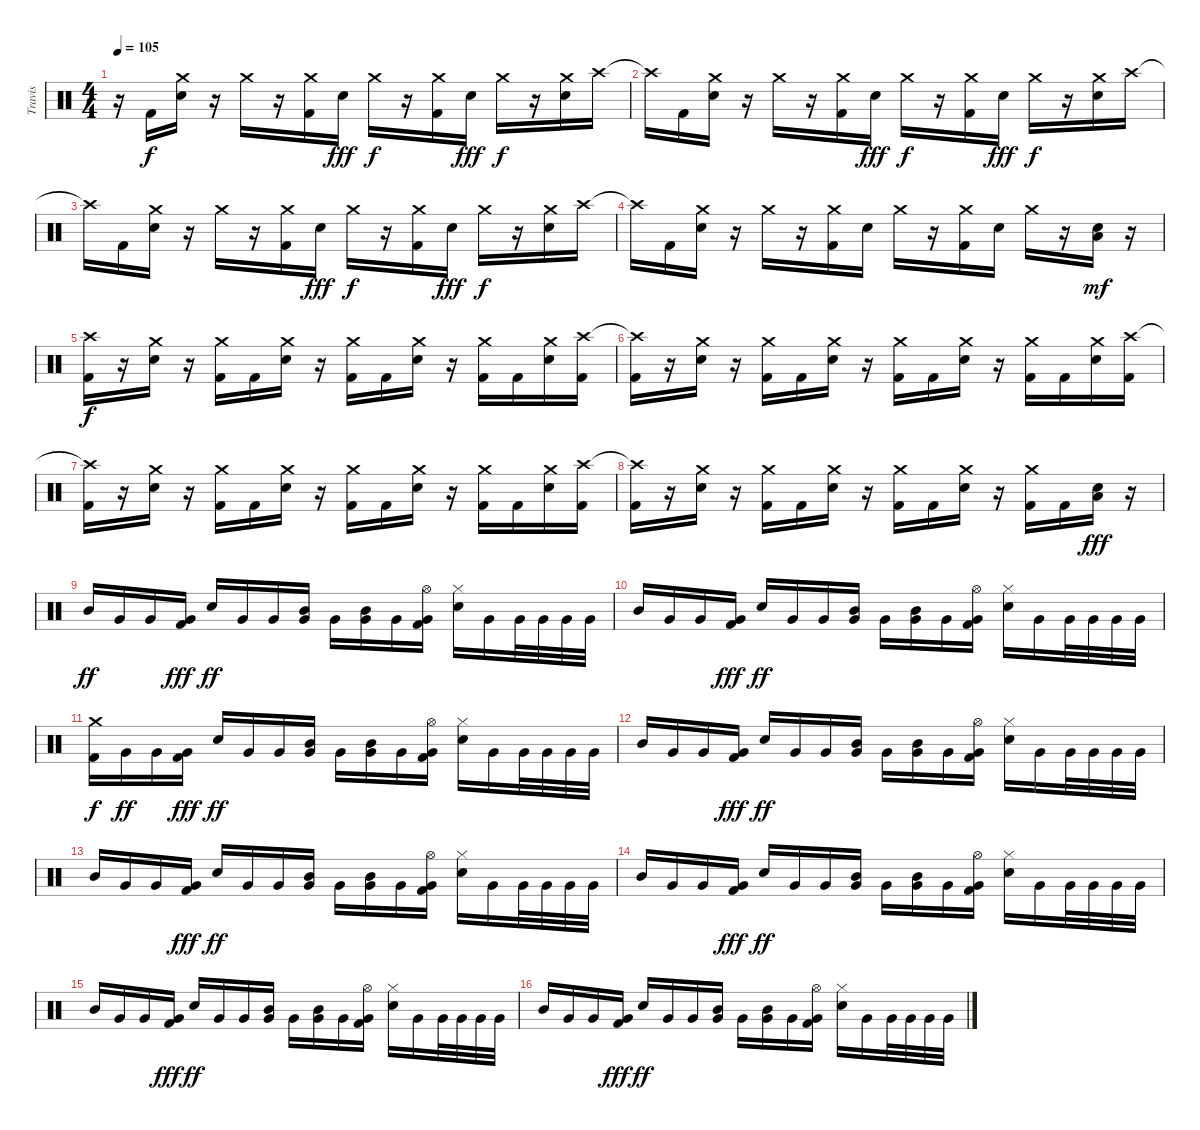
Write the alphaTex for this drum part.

\track ("Travis" "Travis") {instrument percussion}
\staff {score}
\articulation defaults
\ts (4 4)
\tempo 105
\clef neutral
\ks c
r.16{dy f} "Kick (hit) 2".16 ("Crash medium (hit)" "Electric Snare (hit)").16 r.16 "Crash medium (hit)".16 r.16 ("Crash medium (hit)" "Kick (hit) 2").16 "Electric Snare (hit)".16{dy fff} "Crash medium (hit)".16{dy f} r.16 ("Crash medium (hit)" "Kick (hit) 2").16 "Electric Snare (hit)".16{dy fff} "Crash medium (hit)".16{dy f} r.16 ("Crash medium (hit)" "Electric Snare (hit)").16 "Crash high (hit)".16 |
"Crash high (hit)"{t}.16 "Kick (hit) 2".16 ("Crash medium (hit)" "Electric Snare (hit)").16 r.16 "Crash medium (hit)".16 r.16 ("Crash medium (hit)" "Kick (hit) 2").16 "Electric Snare (hit)".16{dy fff} "Crash medium (hit)".16{dy f} r.16 ("Crash medium (hit)" "Kick (hit) 2").16 "Electric Snare (hit)".16{dy fff} "Crash medium (hit)".16{dy f} r.16 ("Crash medium (hit)" "Electric Snare (hit)").16 "Crash high (hit)".16 |
"Crash high (hit)"{t}.16 "Kick (hit) 2".16 ("Crash medium (hit)" "Electric Snare (hit)").16 r.16 "Crash medium (hit)".16 r.16 ("Crash medium (hit)" "Kick (hit) 2").16 "Electric Snare (hit)".16{dy fff} "Crash medium (hit)".16{dy f} r.16 ("Crash medium (hit)" "Kick (hit) 2").16 "Electric Snare (hit)".16{dy fff} "Crash medium (hit)".16{dy f} r.16 ("Crash medium (hit)" "Electric Snare (hit)").16 "Crash high (hit)".16 |
"Crash high (hit)"{t}.16 "Kick (hit) 2".16 ("Crash medium (hit)" "Electric Snare (hit)").16 r.16 "Crash medium (hit)".16 r.16 ("Crash medium (hit)" "Kick (hit) 2").16 "Electric Snare (hit)".16 "Crash medium (hit)".16 r.16 ("Crash medium (hit)" "Kick (hit) 2").16 "Electric Snare (hit)".16 "Crash medium (hit)".16 r.16 ("Low Tom (hit)" "Electric Snare (hit)").16{dy mf} r.16 |
("Crash high (hit)" "Kick (hit) 2").16{dy f} r.16 ("Crash medium (hit)" "Electric Snare (hit)").16 r.16 ("Crash medium (hit)" "Kick (hit) 2").16 "Kick (hit) 2".16 ("Crash medium (hit)" "Electric Snare (hit)").16 r.16 ("Crash medium (hit)" "Kick (hit) 2").16 "Kick (hit) 2".16 ("Crash medium (hit)" "Electric Snare (hit)").16 r.16 ("Crash medium (hit)" "Kick (hit) 2").16 "Kick (hit) 2".16 ("Crash medium (hit)" "Electric Snare (hit)").16 ("Crash high (hit)" "Kick (hit) 2").16 |
("Crash high (hit)"{t} "Kick (hit) 2").16 r.16 ("Crash medium (hit)" "Electric Snare (hit)").16 r.16 ("Crash medium (hit)" "Kick (hit) 2").16 "Kick (hit) 2".16 ("Crash medium (hit)" "Electric Snare (hit)").16 r.16 ("Crash medium (hit)" "Kick (hit) 2").16 "Kick (hit) 2".16 ("Crash medium (hit)" "Electric Snare (hit)").16 r.16 ("Crash medium (hit)" "Kick (hit) 2").16 "Kick (hit) 2".16 ("Crash medium (hit)" "Electric Snare (hit)").16 ("Crash high (hit)" "Kick (hit) 2").16 |
("Crash high (hit)"{t} "Kick (hit) 2").16 r.16 ("Crash medium (hit)" "Electric Snare (hit)").16 r.16 ("Crash medium (hit)" "Kick (hit) 2").16 "Kick (hit) 2".16 ("Crash medium (hit)" "Electric Snare (hit)").16 r.16 ("Crash medium (hit)" "Kick (hit) 2").16 "Kick (hit) 2".16 ("Crash medium (hit)" "Electric Snare (hit)").16 r.16 ("Crash medium (hit)" "Kick (hit) 2").16 "Kick (hit) 2".16 ("Crash medium (hit)" "Electric Snare (hit)").16 ("Crash high (hit)" "Kick (hit) 2").16 |
("Crash high (hit)"{t} "Kick (hit) 2").16 r.16 ("Crash medium (hit)" "Electric Snare (hit)").16 r.16 ("Crash medium (hit)" "Kick (hit) 2").16 "Kick (hit) 2".16 ("Crash medium (hit)" "Electric Snare (hit)").16 r.16 ("Crash medium (hit)" "Kick (hit) 2").16 "Kick (hit) 2".16 ("Crash medium (hit)" "Electric Snare (hit)").16 r.16 ("Crash medium (hit)" "Kick (hit) 2").16 "Kick (hit) 2".16 ("Low Tom (hit)" "Electric Snare (hit)").16{dy fff} r.16 |
"Mid Tom (hit)".16{dy ff} "Very Low Tom (hit)".16 "Very Low Tom (hit)".16 ("Very Low Tom (hit)" "Kick (hit) 2").16{dy fff} "Electric Snare (hit)".16{dy ff} "Very Low Tom (hit)".16 "Very Low Tom (hit)".16 ("Mid Tom (hit)" "Very Low Tom (hit)").16 "Very Low Tom (hit)".16 ("Mid Tom (hit)" "Very Low Tom (hit)").16 "Very Low Tom (hit)".16 ("Hi-Hat (open)" "Very Low Tom (hit)" "Kick (hit) 2").16 ("Hi-Hat (closed)" "Electric Snare (hit)").16 "Very Low Tom (hit)".16 "Very Low Tom (hit)".32 "Very Low Tom (hit)".32 "Very Low Tom (hit)".32 "Very Low Tom (hit)".32 |
"Mid Tom (hit)".16 "Very Low Tom (hit)".16 "Very Low Tom (hit)".16 ("Very Low Tom (hit)" "Kick (hit) 2").16{dy fff} "Electric Snare (hit)".16{dy ff} "Very Low Tom (hit)".16 "Very Low Tom (hit)".16 ("Mid Tom (hit)" "Very Low Tom (hit)").16 "Very Low Tom (hit)".16 ("Mid Tom (hit)" "Very Low Tom (hit)").16 "Very Low Tom (hit)".16 ("Hi-Hat (open)" "Very Low Tom (hit)" "Kick (hit) 2").16 ("Hi-Hat (closed)" "Electric Snare (hit)").16 "Very Low Tom (hit)".16 "Very Low Tom (hit)".32 "Very Low Tom (hit)".32 "Very Low Tom (hit)".32 "Very Low Tom (hit)".32 |
("Crash medium (hit)" "Kick (hit) 2").16{dy f} "Very Low Tom (hit)".16{dy ff} "Very Low Tom (hit)".16 ("Very Low Tom (hit)" "Kick (hit) 2").16{dy fff} "Electric Snare (hit)".16{dy ff} "Very Low Tom (hit)".16 "Very Low Tom (hit)".16 ("Mid Tom (hit)" "Very Low Tom (hit)").16 "Very Low Tom (hit)".16 ("Mid Tom (hit)" "Very Low Tom (hit)").16 "Very Low Tom (hit)".16 ("Hi-Hat (open)" "Very Low Tom (hit)" "Kick (hit) 2").16 ("Hi-Hat (closed)" "Electric Snare (hit)").16 "Very Low Tom (hit)".16 "Very Low Tom (hit)".32 "Very Low Tom (hit)".32 "Very Low Tom (hit)".32 "Very Low Tom (hit)".32 |
"Mid Tom (hit)".16 "Very Low Tom (hit)".16 "Very Low Tom (hit)".16 ("Very Low Tom (hit)" "Kick (hit) 2").16{dy fff} "Electric Snare (hit)".16{dy ff} "Very Low Tom (hit)".16 "Very Low Tom (hit)".16 ("Mid Tom (hit)" "Very Low Tom (hit)").16 "Very Low Tom (hit)".16 ("Mid Tom (hit)" "Very Low Tom (hit)").16 "Very Low Tom (hit)".16 ("Hi-Hat (open)" "Very Low Tom (hit)" "Kick (hit) 2").16 ("Hi-Hat (closed)" "Electric Snare (hit)").16 "Very Low Tom (hit)".16 "Very Low Tom (hit)".32 "Very Low Tom (hit)".32 "Very Low Tom (hit)".32 "Very Low Tom (hit)".32 |
"Mid Tom (hit)".16 "Very Low Tom (hit)".16 "Very Low Tom (hit)".16 ("Very Low Tom (hit)" "Kick (hit) 2").16{dy fff} "Electric Snare (hit)".16{dy ff} "Very Low Tom (hit)".16 "Very Low Tom (hit)".16 ("Mid Tom (hit)" "Very Low Tom (hit)").16 "Very Low Tom (hit)".16 ("Mid Tom (hit)" "Very Low Tom (hit)").16 "Very Low Tom (hit)".16 ("Hi-Hat (open)" "Very Low Tom (hit)" "Kick (hit) 2").16 ("Hi-Hat (closed)" "Electric Snare (hit)").16 "Very Low Tom (hit)".16 "Very Low Tom (hit)".32 "Very Low Tom (hit)".32 "Very Low Tom (hit)".32 "Very Low Tom (hit)".32 |
"Mid Tom (hit)".16 "Very Low Tom (hit)".16 "Very Low Tom (hit)".16 ("Very Low Tom (hit)" "Kick (hit) 2").16{dy fff} "Electric Snare (hit)".16{dy ff} "Very Low Tom (hit)".16 "Very Low Tom (hit)".16 ("Mid Tom (hit)" "Very Low Tom (hit)").16 "Very Low Tom (hit)".16 ("Mid Tom (hit)" "Very Low Tom (hit)").16 "Very Low Tom (hit)".16 ("Hi-Hat (open)" "Very Low Tom (hit)" "Kick (hit) 2").16 ("Hi-Hat (closed)" "Electric Snare (hit)").16 "Very Low Tom (hit)".16 "Very Low Tom (hit)".32 "Very Low Tom (hit)".32 "Very Low Tom (hit)".32 "Very Low Tom (hit)".32 |
"Mid Tom (hit)".16 "Very Low Tom (hit)".16 "Very Low Tom (hit)".16 ("Very Low Tom (hit)" "Kick (hit) 2").16{dy fff} "Electric Snare (hit)".16{dy ff} "Very Low Tom (hit)".16 "Very Low Tom (hit)".16 ("Mid Tom (hit)" "Very Low Tom (hit)").16 "Very Low Tom (hit)".16 ("Mid Tom (hit)" "Very Low Tom (hit)").16 "Very Low Tom (hit)".16 ("Hi-Hat (open)" "Very Low Tom (hit)" "Kick (hit) 2").16 ("Hi-Hat (closed)" "Electric Snare (hit)").16 "Very Low Tom (hit)".16 "Very Low Tom (hit)".32 "Very Low Tom (hit)".32 "Very Low Tom (hit)".32 "Very Low Tom (hit)".32 |
"Mid Tom (hit)".16 "Very Low Tom (hit)".16 "Very Low Tom (hit)".16 ("Very Low Tom (hit)" "Kick (hit) 2").16{dy fff} "Electric Snare (hit)".16{dy ff} "Very Low Tom (hit)".16 "Very Low Tom (hit)".16 ("Mid Tom (hit)" "Very Low Tom (hit)").16 "Very Low Tom (hit)".16 ("Mid Tom (hit)" "Very Low Tom (hit)").16 "Very Low Tom (hit)".16 ("Hi-Hat (open)" "Very Low Tom (hit)" "Kick (hit) 2").16 ("Hi-Hat (closed)" "Electric Snare (hit)").16 "Very Low Tom (hit)".16 "Very Low Tom (hit)".32 "Very Low Tom (hit)".32 "Very Low Tom (hit)".32 "Very Low Tom (hit)".32
